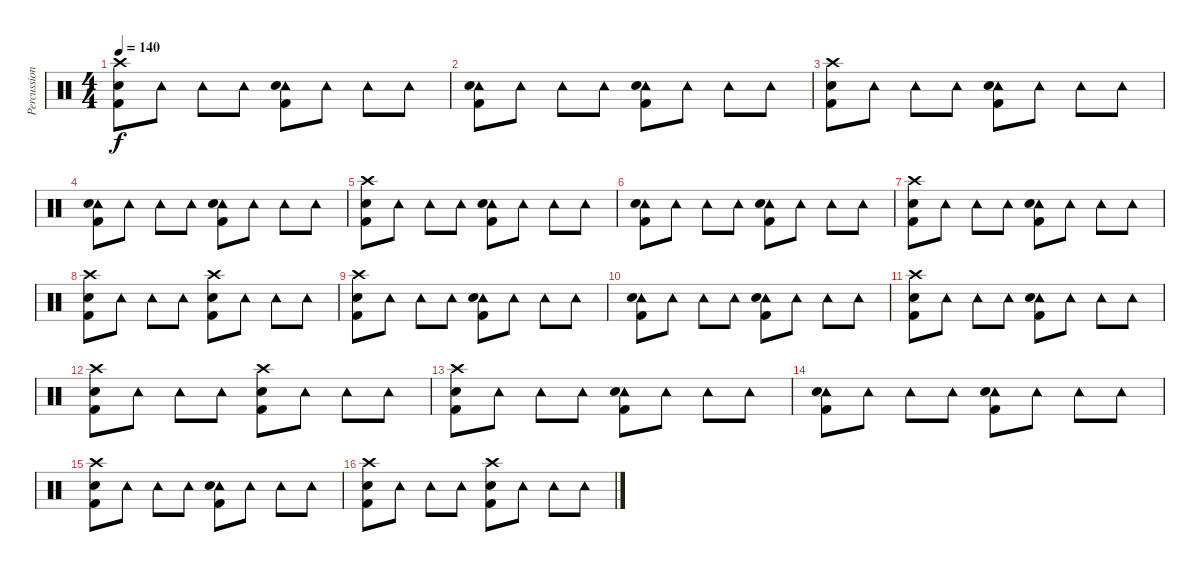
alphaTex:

\track ("Percussion" "Percussion") {instrument percussion}
\staff {score}
\articulation defaults
\ts (4 4)
\tempo 140
\clef neutral
\ks c
("Crash high (hit)" "Snare (hit) 2" "Kick (hit) 2").8{dy f} "Tambourine (hit)".8 "Tambourine (hit)".8 "Tambourine (hit)".8 ("Tambourine (hit)" "Snare (hit) 2" "Kick (hit) 2").8 "Tambourine (hit)".8 "Tambourine (hit)".8 "Tambourine (hit)".8 |
("Tambourine (hit)" "Snare (hit) 2" "Kick (hit) 2").8 "Tambourine (hit)".8 "Tambourine (hit)".8 "Tambourine (hit)".8 ("Tambourine (hit)" "Snare (hit) 2" "Kick (hit) 2").8 "Tambourine (hit)".8 "Tambourine (hit)".8 "Tambourine (hit)".8 |
("Crash high (hit)" "Snare (hit) 2" "Kick (hit) 2").8 "Tambourine (hit)".8 "Tambourine (hit)".8 "Tambourine (hit)".8 ("Tambourine (hit)" "Snare (hit) 2" "Kick (hit) 2").8 "Tambourine (hit)".8 "Tambourine (hit)".8 "Tambourine (hit)".8 |
("Tambourine (hit)" "Snare (hit) 2" "Kick (hit) 2").8 "Tambourine (hit)".8 "Tambourine (hit)".8 "Tambourine (hit)".8 ("Tambourine (hit)" "Snare (hit) 2" "Kick (hit) 2").8 "Tambourine (hit)".8 "Tambourine (hit)".8 "Tambourine (hit)".8 |
("Crash high (hit)" "Snare (hit) 2" "Kick (hit) 2").8 "Tambourine (hit)".8 "Tambourine (hit)".8 "Tambourine (hit)".8 ("Tambourine (hit)" "Snare (hit) 2" "Kick (hit) 2").8 "Tambourine (hit)".8 "Tambourine (hit)".8 "Tambourine (hit)".8 |
("Tambourine (hit)" "Snare (hit) 2" "Kick (hit) 2").8 "Tambourine (hit)".8 "Tambourine (hit)".8 "Tambourine (hit)".8 ("Tambourine (hit)" "Snare (hit) 2" "Kick (hit) 2").8 "Tambourine (hit)".8 "Tambourine (hit)".8 "Tambourine (hit)".8 |
("Crash high (hit)" "Snare (hit) 2" "Kick (hit) 2").8 "Tambourine (hit)".8 "Tambourine (hit)".8 "Tambourine (hit)".8 ("Tambourine (hit)" "Snare (hit) 2" "Kick (hit) 2").8 "Tambourine (hit)".8 "Tambourine (hit)".8 "Tambourine (hit)".8 |
("Crash high (hit)" "Snare (hit) 2" "Kick (hit) 2").8 "Tambourine (hit)".8 "Tambourine (hit)".8 "Tambourine (hit)".8 ("Crash high (hit)" "Snare (hit) 2" "Kick (hit) 2").8 "Tambourine (hit)".8 "Tambourine (hit)".8 "Tambourine (hit)".8 |
("Crash high (hit)" "Snare (hit) 2" "Kick (hit) 2").8 "Tambourine (hit)".8 "Tambourine (hit)".8 "Tambourine (hit)".8 ("Tambourine (hit)" "Snare (hit) 2" "Kick (hit) 2").8 "Tambourine (hit)".8 "Tambourine (hit)".8 "Tambourine (hit)".8 |
("Tambourine (hit)" "Snare (hit) 2" "Kick (hit) 2").8 "Tambourine (hit)".8 "Tambourine (hit)".8 "Tambourine (hit)".8 ("Tambourine (hit)" "Snare (hit) 2" "Kick (hit) 2").8 "Tambourine (hit)".8 "Tambourine (hit)".8 "Tambourine (hit)".8 |
("Crash high (hit)" "Snare (hit) 2" "Kick (hit) 2").8 "Tambourine (hit)".8 "Tambourine (hit)".8 "Tambourine (hit)".8 ("Tambourine (hit)" "Snare (hit) 2" "Kick (hit) 2").8 "Tambourine (hit)".8 "Tambourine (hit)".8 "Tambourine (hit)".8 |
("Crash high (hit)" "Snare (hit) 2" "Kick (hit) 2").8 "Tambourine (hit)".8 "Tambourine (hit)".8 "Tambourine (hit)".8 ("Crash high (hit)" "Snare (hit) 2" "Kick (hit) 2").8 "Tambourine (hit)".8 "Tambourine (hit)".8 "Tambourine (hit)".8 |
("Crash high (hit)" "Snare (hit) 2" "Kick (hit) 2").8 "Tambourine (hit)".8 "Tambourine (hit)".8 "Tambourine (hit)".8 ("Tambourine (hit)" "Snare (hit) 2" "Kick (hit) 2").8 "Tambourine (hit)".8 "Tambourine (hit)".8 "Tambourine (hit)".8 |
("Tambourine (hit)" "Snare (hit) 2" "Kick (hit) 2").8 "Tambourine (hit)".8 "Tambourine (hit)".8 "Tambourine (hit)".8 ("Tambourine (hit)" "Snare (hit) 2" "Kick (hit) 2").8 "Tambourine (hit)".8 "Tambourine (hit)".8 "Tambourine (hit)".8 |
("Crash high (hit)" "Snare (hit) 2" "Kick (hit) 2").8 "Tambourine (hit)".8 "Tambourine (hit)".8 "Tambourine (hit)".8 ("Tambourine (hit)" "Snare (hit) 2" "Kick (hit) 2").8 "Tambourine (hit)".8 "Tambourine (hit)".8 "Tambourine (hit)".8 |
("Crash high (hit)" "Snare (hit) 2" "Kick (hit) 2").8 "Tambourine (hit)".8 "Tambourine (hit)".8 "Tambourine (hit)".8 ("Crash high (hit)" "Snare (hit) 2" "Kick (hit) 2").8 "Tambourine (hit)".8 "Tambourine (hit)".8 "Tambourine (hit)".8
